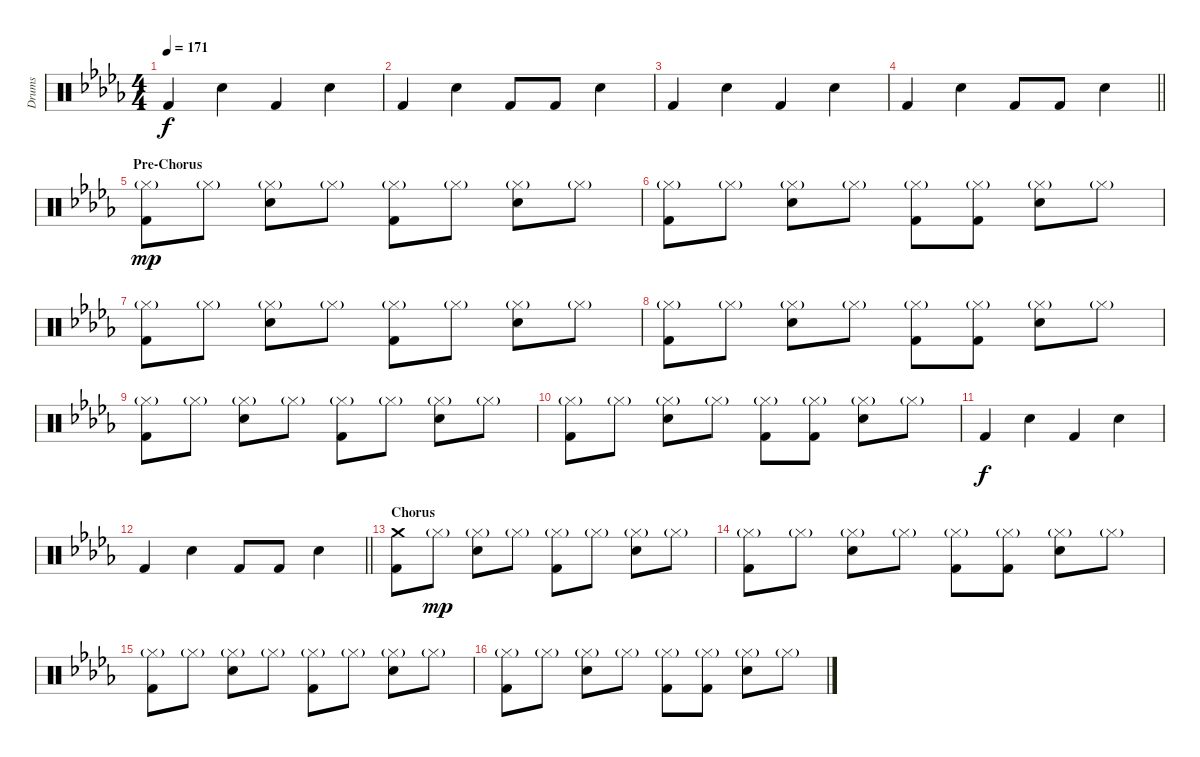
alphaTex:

\track ("Drums" "Drums") {instrument percussion}
\staff {score}
\articulation defaults
\ts (4 4)
\tempo 171
\clef neutral
\ks db "Kick (hit) 2".4{dy f} "Snare (hit) 2".4 "Kick (hit) 2".4 "Snare (hit) 2".4
|
"Kick (hit) 2".4 "Snare (hit) 2".4 "Kick (hit) 2".8 "Kick (hit) 2".8 "Snare (hit) 2".4 |
"Kick (hit) 2".4 "Snare (hit) 2".4 "Kick (hit) 2".4 "Snare (hit) 2".4 |
\barLineRight lightlight "Kick (hit) 2".4 "Snare (hit) 2".4 "Kick (hit) 2".8 "Kick (hit) 2".8 "Snare (hit) 2".4
|
\section ("" "Pre-Chorus")
("Hi-Hat (closed)"{g} "Kick (hit) 2").8{dy mp} "Hi-Hat (closed)"{g}.8 ("Hi-Hat (closed)"{g} "Snare (hit) 2").8 "Hi-Hat (closed)"{g}.8 ("Hi-Hat (closed)"{g} "Kick (hit) 2").8 "Hi-Hat (closed)"{g}.8 ("Hi-Hat (closed)"{g} "Snare (hit) 2").8 "Hi-Hat (closed)"{g}.8 |
("Hi-Hat (closed)"{g} "Kick (hit) 2").8 "Hi-Hat (closed)"{g}.8 ("Hi-Hat (closed)"{g} "Snare (hit) 2").8 "Hi-Hat (closed)"{g}.8 ("Hi-Hat (closed)"{g} "Kick (hit) 2").8 ("Hi-Hat (closed)"{g} "Kick (hit) 2").8 ("Hi-Hat (closed)"{g} "Snare (hit) 2").8 "Hi-Hat (closed)"{g}.8 |
("Hi-Hat (closed)"{g} "Kick (hit) 2").8 "Hi-Hat (closed)"{g}.8 ("Hi-Hat (closed)"{g} "Snare (hit) 2").8 "Hi-Hat (closed)"{g}.8 ("Hi-Hat (closed)"{g} "Kick (hit) 2").8 "Hi-Hat (closed)"{g}.8 ("Hi-Hat (closed)"{g} "Snare (hit) 2").8 "Hi-Hat (closed)"{g}.8 |
("Hi-Hat (closed)"{g} "Kick (hit) 2").8 "Hi-Hat (closed)"{g}.8 ("Hi-Hat (closed)"{g} "Snare (hit) 2").8 "Hi-Hat (closed)"{g}.8 ("Hi-Hat (closed)"{g} "Kick (hit) 2").8 ("Hi-Hat (closed)"{g} "Kick (hit) 2").8 ("Hi-Hat (closed)"{g} "Snare (hit) 2").8 "Hi-Hat (closed)"{g}.8 |
("Hi-Hat (closed)"{g} "Kick (hit) 2").8 "Hi-Hat (closed)"{g}.8 ("Hi-Hat (closed)"{g} "Snare (hit) 2").8 "Hi-Hat (closed)"{g}.8 ("Hi-Hat (closed)"{g} "Kick (hit) 2").8 "Hi-Hat (closed)"{g}.8 ("Hi-Hat (closed)"{g} "Snare (hit) 2").8 "Hi-Hat (closed)"{g}.8 |
("Hi-Hat (closed)"{g} "Kick (hit) 2").8 "Hi-Hat (closed)"{g}.8 ("Hi-Hat (closed)"{g} "Snare (hit) 2").8 "Hi-Hat (closed)"{g}.8 ("Hi-Hat (closed)"{g} "Kick (hit) 2").8 ("Hi-Hat (closed)"{g} "Kick (hit) 2").8 ("Hi-Hat (closed)"{g} "Snare (hit) 2").8 "Hi-Hat (closed)"{g}.8 |
"Kick (hit) 2".4{dy f} "Snare (hit) 2".4 "Kick (hit) 2".4 "Snare (hit) 2".4 |
\barLineRight lightlight "Kick (hit) 2".4 "Snare (hit) 2".4 "Kick (hit) 2".8 "Kick (hit) 2".8 "Snare (hit) 2".4
|
\section ("" "Chorus")
("Crash medium (hit)" "Kick (hit) 2").8 "Hi-Hat (closed)"{g}.8{dy mp} ("Hi-Hat (closed)"{g} "Snare (hit) 2").8 "Hi-Hat (closed)"{g}.8 ("Hi-Hat (closed)"{g} "Kick (hit) 2").8 "Hi-Hat (closed)"{g}.8 ("Hi-Hat (closed)"{g} "Snare (hit) 2").8 "Hi-Hat (closed)"{g}.8 |
("Hi-Hat (closed)"{g} "Kick (hit) 2").8 "Hi-Hat (closed)"{g}.8 ("Hi-Hat (closed)"{g} "Snare (hit) 2").8 "Hi-Hat (closed)"{g}.8 ("Hi-Hat (closed)"{g} "Kick (hit) 2").8 ("Hi-Hat (closed)"{g} "Kick (hit) 2").8 ("Hi-Hat (closed)"{g} "Snare (hit) 2").8 "Hi-Hat (closed)"{g}.8 |
("Hi-Hat (closed)"{g} "Kick (hit) 2").8 "Hi-Hat (closed)"{g}.8 ("Hi-Hat (closed)"{g} "Snare (hit) 2").8 "Hi-Hat (closed)"{g}.8 ("Hi-Hat (closed)"{g} "Kick (hit) 2").8 "Hi-Hat (closed)"{g}.8 ("Hi-Hat (closed)"{g} "Snare (hit) 2").8 "Hi-Hat (closed)"{g}.8 |
("Hi-Hat (closed)"{g} "Kick (hit) 2").8 "Hi-Hat (closed)"{g}.8 ("Hi-Hat (closed)"{g} "Snare (hit) 2").8 "Hi-Hat (closed)"{g}.8 ("Hi-Hat (closed)"{g} "Kick (hit) 2").8 ("Hi-Hat (closed)"{g} "Kick (hit) 2").8 ("Hi-Hat (closed)"{g} "Snare (hit) 2").8 "Hi-Hat (closed)"{g}.8
